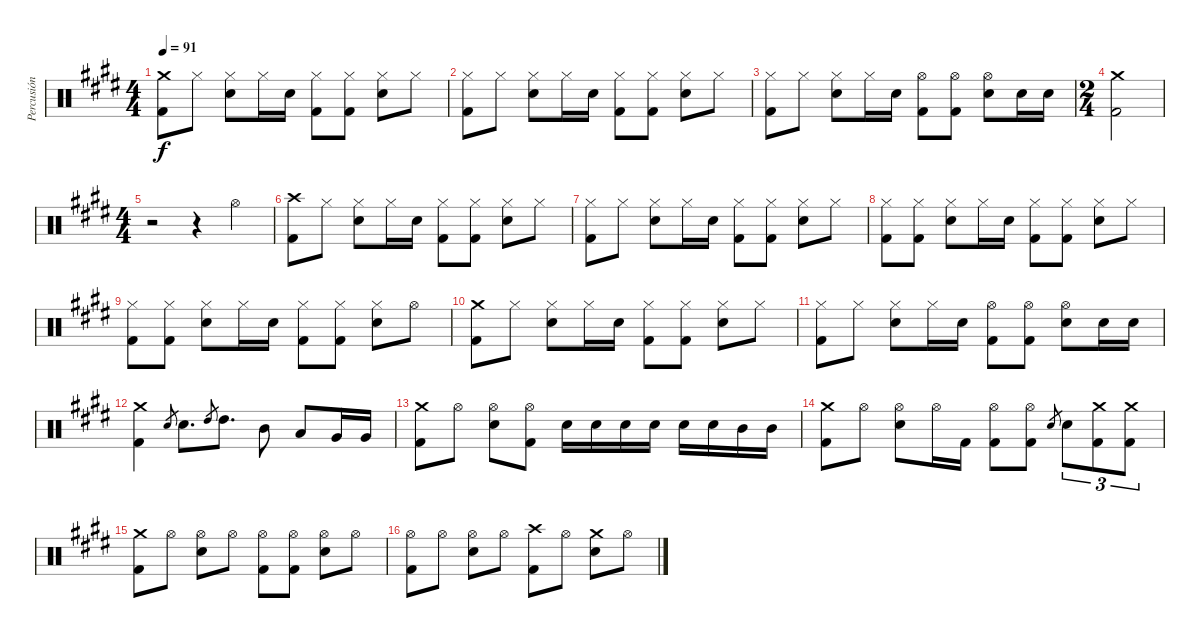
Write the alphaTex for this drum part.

\track ("Percusión" "Percusión") {instrument percussion}
\staff {score}
\articulation defaults
\ts (4 4)
\tempo 91
\clef neutral
\ks c#minor
("Crash medium (hit)" "Kick (hit) 2").8{dy f} "Hi-Hat (closed)".8 ("Hi-Hat (closed)" "Electric Snare (hit)").8 "Hi-Hat (closed)".16 "Electric Snare (hit)".16 ("Hi-Hat (closed)" "Kick (hit) 2").8 ("Hi-Hat (closed)" "Kick (hit) 2").8 ("Hi-Hat (closed)" "Electric Snare (hit)").8 "Hi-Hat (closed)".8 |
("Hi-Hat (closed)" "Kick (hit) 2").8 "Hi-Hat (closed)".8 ("Hi-Hat (closed)" "Electric Snare (hit)").8 "Hi-Hat (closed)".16 "Electric Snare (hit)".16 ("Hi-Hat (closed)" "Kick (hit) 2").8 ("Hi-Hat (closed)" "Kick (hit) 2").8 ("Hi-Hat (closed)" "Electric Snare (hit)").8 "Hi-Hat (closed)".8 |
("Hi-Hat (closed)" "Kick (hit) 2").8 "Hi-Hat (closed)".8 ("Hi-Hat (closed)" "Electric Snare (hit)").8 "Hi-Hat (closed)".16 "Electric Snare (hit)".16 ("Hi-Hat (open)" "Kick (hit) 2").8 ("Hi-Hat (open)" "Kick (hit) 2").8 ("Hi-Hat (open)" "Electric Snare (hit)").8 "Electric Snare (hit)".16 "Electric Snare (hit)".16 |
\ts (2 4)
("Crash medium (hit)" "Kick (hit) 2").2{volume 0} |
\ts (4 4)
r.2 r.4{volume 7} "Hi-Hat (open)".4 |
("Crash high (hit)" "Kick (hit) 2").8 "Hi-Hat (closed)".8 ("Hi-Hat (closed)" "Electric Snare (hit)").8 "Hi-Hat (closed)".16 "Electric Snare (hit)".16 ("Hi-Hat (closed)" "Kick (hit) 2").8 ("Hi-Hat (closed)" "Kick (hit) 2").8 ("Hi-Hat (closed)" "Electric Snare (hit)").8 "Hi-Hat (closed)".8 |
("Hi-Hat (closed)" "Kick (hit) 2").8 "Hi-Hat (closed)".8 ("Hi-Hat (closed)" "Electric Snare (hit)").8 "Hi-Hat (closed)".16 "Electric Snare (hit)".16 ("Hi-Hat (closed)" "Kick (hit) 2").8 ("Hi-Hat (closed)" "Kick (hit) 2").8 ("Hi-Hat (closed)" "Electric Snare (hit)").8 "Hi-Hat (closed)".8 |
("Hi-Hat (closed)" "Kick (hit) 2").8 ("Hi-Hat (closed)" "Kick (hit) 2").8 ("Hi-Hat (closed)" "Electric Snare (hit)").8 "Hi-Hat (closed)".16 "Electric Snare (hit)".16 ("Hi-Hat (closed)" "Kick (hit) 2").8 ("Hi-Hat (closed)" "Kick (hit) 2").8 ("Hi-Hat (closed)" "Electric Snare (hit)").8 "Hi-Hat (closed)".8 |
\ks e
("Hi-Hat (closed)" "Kick (hit) 2").8 ("Hi-Hat (closed)" "Kick (hit) 2").8 ("Hi-Hat (closed)" "Electric Snare (hit)").8 "Hi-Hat (closed)".16 "Electric Snare (hit)".16 ("Hi-Hat (closed)" "Kick (hit) 2").8 ("Hi-Hat (closed)" "Kick (hit) 2").8 ("Hi-Hat (closed)" "Electric Snare (hit)").8 "Hi-Hat (open)".8 |
\ks c#minor
("Crash medium (hit)" "Kick (hit) 2").8 "Hi-Hat (closed)".8 ("Hi-Hat (closed)" "Electric Snare (hit)").8 "Hi-Hat (closed)".16 "Electric Snare (hit)".16 ("Hi-Hat (closed)" "Kick (hit) 2").8 ("Hi-Hat (closed)" "Kick (hit) 2").8 ("Hi-Hat (closed)" "Electric Snare (hit)").8 "Hi-Hat (closed)".8 |
("Hi-Hat (closed)" "Kick (hit) 2").8 "Hi-Hat (closed)".8 ("Hi-Hat (closed)" "Electric Snare (hit)").8 "Hi-Hat (closed)".16 "Electric Snare (hit)".16 ("Hi-Hat (open)" "Kick (hit) 2").8 ("Hi-Hat (open)" "Kick (hit) 2").8 ("Hi-Hat (open)" "Electric Snare (hit)").8 "Electric Snare (hit)".16 "Electric Snare (hit)".16 |
("Crash medium (hit)" "Kick (hit) 2").4 "Electric Snare (hit)".8{gr} "Electric Snare (hit)".8{d} "High Tom (hit)".8{gr} "High Tom (hit)".8{d} "Mid Tom (hit)".8 "Low Tom (hit)".8 "Very Low Tom (hit)".16 "Very Low Tom (hit)".16 |
("Crash medium (hit)" "Kick (hit) 2").8 "Hi-Hat (open)".8 ("Hi-Hat (open)" "Electric Snare (hit)").8 ("Hi-Hat (open)" "Kick (hit) 2").8 "Electric Snare (hit)".16 "Electric Snare (hit)".16 "Electric Snare (hit)".16 "Electric Snare (hit)".16 "Electric Snare (hit)".16 "Electric Snare (hit)".16 "Mid Tom (hit)".16 "Mid Tom (hit)".16 |
("Crash medium (hit)" "Kick (hit) 2").8 "Hi-Hat (open)".8 ("Hi-Hat (open)" "Electric Snare (hit)").8 "Hi-Hat (open)".16 "Kick (hit) 2".16 ("Hi-Hat (open)" "Kick (hit) 2").8 ("Hi-Hat (open)" "Kick (hit) 2").8 "Electric Snare (hit)".8{gr} "Electric Snare (hit)".8{tu (3 2)} ("Crash medium (hit)" "Kick (hit) 2").8{tu (3 2)} ("Crash medium (hit)" "Kick (hit) 2").8{tu (3 2)} |
("Crash medium (hit)" "Kick (hit) 2").8 "Hi-Hat (open)".8 ("Hi-Hat (open)" "Electric Snare (hit)").8 "Hi-Hat (open)".8 ("Hi-Hat (open)" "Kick (hit) 2").8 ("Hi-Hat (open)" "Kick (hit) 2").8 ("Hi-Hat (open)" "Electric Snare (hit)").8 "Hi-Hat (open)".8 |
\ks e
("Hi-Hat (open)" "Kick (hit) 2").8 "Hi-Hat (open)".8 ("Hi-Hat (open)" "Electric Snare (hit)").8 "Hi-Hat (open)".8 ("Crash high (hit)" "Kick (hit) 2").8 "Hi-Hat (open)".8 ("Crash medium (hit)" "Electric Snare (hit)").8 "Hi-Hat (open)".8
